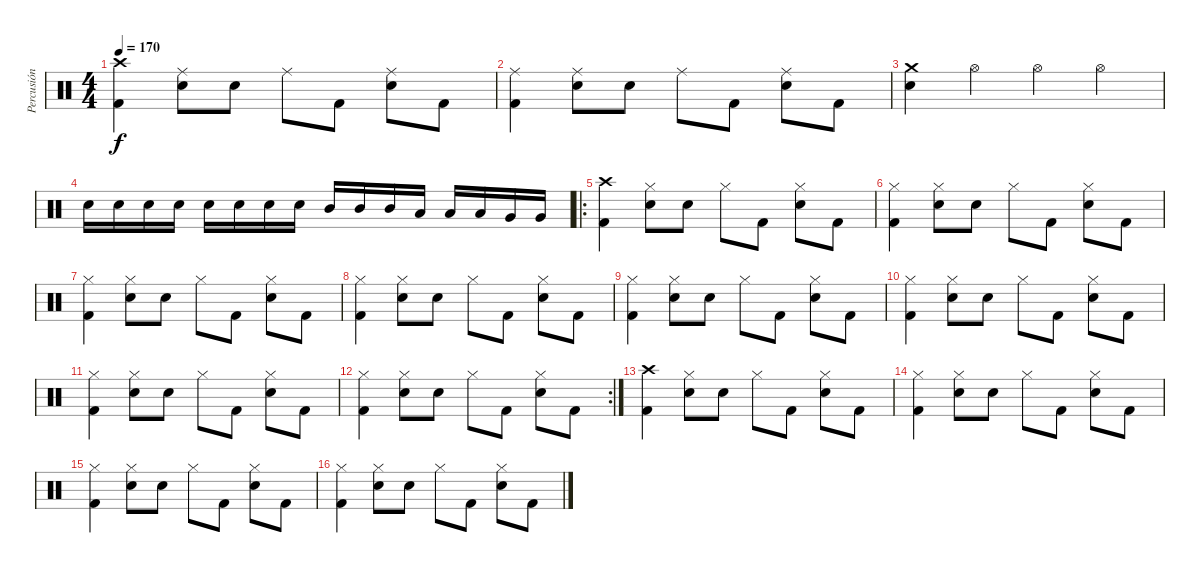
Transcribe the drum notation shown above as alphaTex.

\track ("Percusión" "Percusión") {instrument percussion}
\staff {score}
\articulation defaults
\ts (4 4)
\tempo 170
\clef neutral
\ks c
("Crash high (hit)" "Kick (hit) 2").4{dy f} ("Ride (middle)" "Electric Snare (hit)").8 "Electric Snare (hit)".8 "Ride (middle)".8 "Kick (hit) 2".8 ("Ride (middle)" "Electric Snare (hit)").8 "Kick (hit) 2".8 |
("Ride (middle)" "Kick (hit) 2").4 ("Ride (middle)" "Electric Snare (hit)").8 "Electric Snare (hit)".8 "Ride (middle)".8 "Kick (hit) 2".8 ("Ride (middle)" "Electric Snare (hit)").8 "Kick (hit) 2".8 |
("Crash medium (hit)" "Electric Snare (hit)").4 "Hi-Hat (open)".4 "Hi-Hat (open)".4 "Hi-Hat (open)".4 |
"Electric Snare (hit)".16 "Electric Snare (hit)".16 "Electric Snare (hit)".16 "Electric Snare (hit)".16 "Electric Snare (hit)".16 "Electric Snare (hit)".16 "Electric Snare (hit)".16 "Electric Snare (hit)".16 "Mid Tom (hit)".16 "Mid Tom (hit)".16 "Mid Tom (hit)".16 "Low Tom (hit)".16 "Low Tom (hit)".16 "Low Tom (hit)".16 "Very Low Tom (hit)".16 "Very Low Tom (hit)".16 |
\ro
("Crash high (hit)" "Kick (hit) 2").4 ("Hi-Hat (closed)" "Electric Snare (hit)").8 "Electric Snare (hit)".8 "Hi-Hat (closed)".8 "Kick (hit) 2".8 ("Hi-Hat (closed)" "Electric Snare (hit)").8 "Kick (hit) 2".8 |
("Hi-Hat (closed)" "Kick (hit) 2").4 ("Hi-Hat (closed)" "Electric Snare (hit)").8 "Electric Snare (hit)".8 "Hi-Hat (closed)".8 "Kick (hit) 2".8 ("Hi-Hat (closed)" "Electric Snare (hit)").8 "Kick (hit) 2".8 |
("Hi-Hat (closed)" "Kick (hit) 2").4 ("Hi-Hat (closed)" "Electric Snare (hit)").8 "Electric Snare (hit)".8 "Hi-Hat (closed)".8 "Kick (hit) 2".8 ("Hi-Hat (closed)" "Electric Snare (hit)").8 "Kick (hit) 2".8 |
("Hi-Hat (closed)" "Kick (hit) 2").4 ("Hi-Hat (closed)" "Electric Snare (hit)").8 "Electric Snare (hit)".8 "Hi-Hat (closed)".8 "Kick (hit) 2".8 ("Hi-Hat (closed)" "Electric Snare (hit)").8 "Kick (hit) 2".8 |
("Hi-Hat (closed)" "Kick (hit) 2").4 ("Hi-Hat (closed)" "Electric Snare (hit)").8 "Electric Snare (hit)".8 "Hi-Hat (closed)".8 "Kick (hit) 2".8 ("Hi-Hat (closed)" "Electric Snare (hit)").8 "Kick (hit) 2".8 |
("Hi-Hat (closed)" "Kick (hit) 2").4 ("Hi-Hat (closed)" "Electric Snare (hit)").8 "Electric Snare (hit)".8 "Hi-Hat (closed)".8 "Kick (hit) 2".8 ("Hi-Hat (closed)" "Electric Snare (hit)").8 "Kick (hit) 2".8 |
("Hi-Hat (closed)" "Kick (hit) 2").4 ("Hi-Hat (closed)" "Electric Snare (hit)").8 "Electric Snare (hit)".8 "Hi-Hat (closed)".8 "Kick (hit) 2".8 ("Hi-Hat (closed)" "Electric Snare (hit)").8 "Kick (hit) 2".8 |
\rc 2
("Hi-Hat (closed)" "Kick (hit) 2").4 ("Hi-Hat (closed)" "Electric Snare (hit)").8 "Electric Snare (hit)".8 "Hi-Hat (closed)".8 "Kick (hit) 2".8 ("Hi-Hat (closed)" "Electric Snare (hit)").8 "Kick (hit) 2".8 |
("Crash high (hit)" "Kick (hit) 2").4 ("Hi-Hat (closed)" "Electric Snare (hit)").8 "Electric Snare (hit)".8 "Hi-Hat (closed)".8 "Kick (hit) 2".8 ("Hi-Hat (closed)" "Electric Snare (hit)").8 "Kick (hit) 2".8 |
("Hi-Hat (closed)" "Kick (hit) 2").4 ("Hi-Hat (closed)" "Electric Snare (hit)").8 "Electric Snare (hit)".8 "Hi-Hat (closed)".8 "Kick (hit) 2".8 ("Hi-Hat (closed)" "Electric Snare (hit)").8 "Kick (hit) 2".8 |
("Hi-Hat (closed)" "Kick (hit) 2").4 ("Hi-Hat (closed)" "Electric Snare (hit)").8 "Electric Snare (hit)".8 "Hi-Hat (closed)".8 "Kick (hit) 2".8 ("Hi-Hat (closed)" "Electric Snare (hit)").8 "Kick (hit) 2".8 |
("Hi-Hat (closed)" "Kick (hit) 2").4 ("Hi-Hat (closed)" "Electric Snare (hit)").8 "Electric Snare (hit)".8 "Hi-Hat (closed)".8 "Kick (hit) 2".8 ("Hi-Hat (closed)" "Electric Snare (hit)").8 "Kick (hit) 2".8
